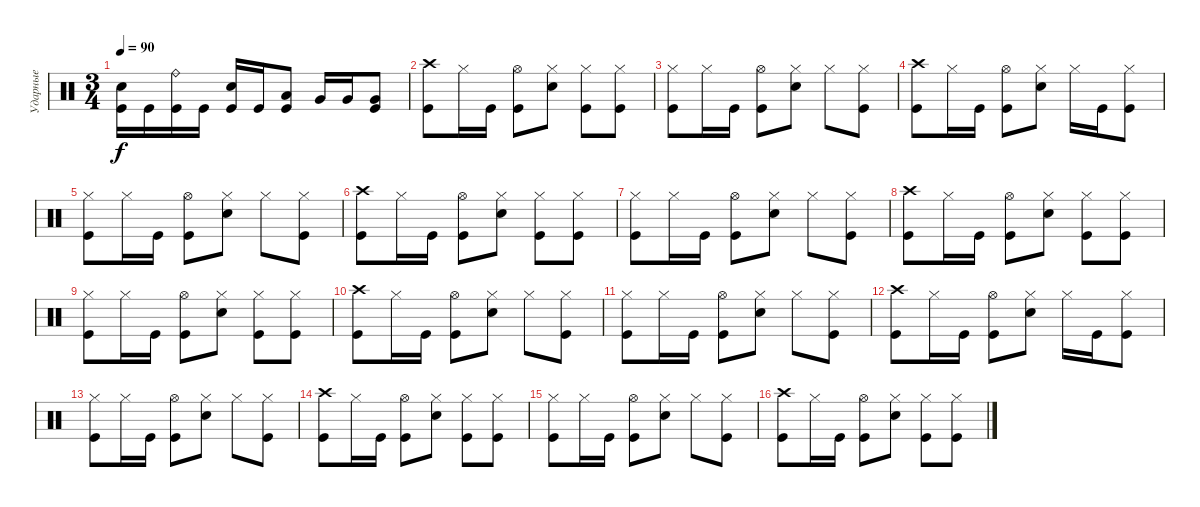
\track ("Ударные" "Ударные") {instrument percussion}
\staff {score}
\articulation defaults
\ts (3 4)
\tempo 90
\clef neutral
\ks c
("Electric Snare (hit)" "Kick (hit)").16{dy f} "Kick (hit)".16 ("Ride (bell)" "Kick (hit)").16 "Kick (hit)".16 ("Electric Snare (hit)" "Kick (hit)").16 "Kick (hit)".16 ("Low Tom (hit)" "Kick (hit)").8 "Very Low Tom (hit)".16 "Very Low Tom (hit)".16 ("Very Low Tom (hit)" "Kick (hit)").8 |
("Crash high (hit)" "Kick (hit)").8 "Hi-Hat (closed)".16 "Kick (hit)".16 ("Hi-Hat (open)" "Kick (hit)").8 ("Hi-Hat (closed)" "Electric Snare (hit)").8 ("Hi-Hat (closed)" "Kick (hit)").8 ("Hi-Hat (closed)" "Kick (hit)").8 |
("Hi-Hat (closed)" "Kick (hit)").8 "Hi-Hat (closed)".16 "Kick (hit)".16 ("Hi-Hat (open)" "Kick (hit)").8 ("Hi-Hat (closed)" "Electric Snare (hit)").8 "Hi-Hat (closed)".8 ("Hi-Hat (closed)" "Kick (hit)").8 |
("Crash high (hit)" "Kick (hit)").8 "Hi-Hat (closed)".16 "Kick (hit)".16 ("Hi-Hat (open)" "Kick (hit)").8 ("Hi-Hat (closed)" "Electric Snare (hit)").8 "Hi-Hat (closed)".16 "Kick (hit)".16 ("Hi-Hat (closed)" "Kick (hit)").8 |
("Hi-Hat (closed)" "Kick (hit)").8 "Hi-Hat (closed)".16 "Kick (hit)".16 ("Hi-Hat (open)" "Kick (hit)").8 ("Hi-Hat (closed)" "Electric Snare (hit)").8 "Hi-Hat (closed)".8 ("Hi-Hat (closed)" "Kick (hit)").8 |
("Crash high (hit)" "Kick (hit)").8 "Hi-Hat (closed)".16 "Kick (hit)".16 ("Hi-Hat (open)" "Kick (hit)").8 ("Hi-Hat (closed)" "Electric Snare (hit)").8 ("Hi-Hat (closed)" "Kick (hit)").8 ("Hi-Hat (closed)" "Kick (hit)").8 |
("Hi-Hat (closed)" "Kick (hit)").8 "Hi-Hat (closed)".16 "Kick (hit)".16 ("Hi-Hat (open)" "Kick (hit)").8 ("Hi-Hat (closed)" "Electric Snare (hit)").8 "Hi-Hat (closed)".8 ("Hi-Hat (closed)" "Kick (hit)").8 |
("Crash high (hit)" "Kick (hit)").8 "Hi-Hat (closed)".16 "Kick (hit)".16 ("Hi-Hat (open)" "Kick (hit)").8 ("Hi-Hat (closed)" "Electric Snare (hit)").8 ("Hi-Hat (closed)" "Kick (hit)").8 ("Hi-Hat (closed)" "Kick (hit)").8 |
("Hi-Hat (closed)" "Kick (hit)").8 "Hi-Hat (closed)".16 "Kick (hit)".16 ("Hi-Hat (open)" "Kick (hit)").8 ("Hi-Hat (closed)" "Electric Snare (hit)").8 ("Hi-Hat (closed)" "Kick (hit)").8 ("Hi-Hat (closed)" "Kick (hit)").8 |
("Crash high (hit)" "Kick (hit)").8 "Hi-Hat (closed)".16 "Kick (hit)".16 ("Hi-Hat (open)" "Kick (hit)").8 ("Hi-Hat (closed)" "Electric Snare (hit)").8 "Hi-Hat (closed)".8 ("Hi-Hat (closed)" "Kick (hit)").8 |
("Hi-Hat (closed)" "Kick (hit)").8 "Hi-Hat (closed)".16 "Kick (hit)".16 ("Hi-Hat (open)" "Kick (hit)").8 ("Hi-Hat (closed)" "Electric Snare (hit)").8 "Hi-Hat (closed)".8 ("Hi-Hat (closed)" "Kick (hit)").8 |
("Crash high (hit)" "Kick (hit)").8 "Hi-Hat (closed)".16 "Kick (hit)".16 ("Hi-Hat (open)" "Kick (hit)").8 ("Hi-Hat (closed)" "Electric Snare (hit)").8 "Hi-Hat (closed)".16 "Kick (hit)".16 ("Hi-Hat (closed)" "Kick (hit)").8 |
("Hi-Hat (closed)" "Kick (hit)").8 "Hi-Hat (closed)".16 "Kick (hit)".16 ("Hi-Hat (open)" "Kick (hit)").8 ("Hi-Hat (closed)" "Electric Snare (hit)").8 "Hi-Hat (closed)".8 ("Hi-Hat (closed)" "Kick (hit)").8 |
("Crash high (hit)" "Kick (hit)").8 "Hi-Hat (closed)".16 "Kick (hit)".16 ("Hi-Hat (open)" "Kick (hit)").8 ("Hi-Hat (closed)" "Electric Snare (hit)").8 ("Hi-Hat (closed)" "Kick (hit)").8 ("Hi-Hat (closed)" "Kick (hit)").8 |
("Hi-Hat (closed)" "Kick (hit)").8 "Hi-Hat (closed)".16 "Kick (hit)".16 ("Hi-Hat (open)" "Kick (hit)").8 ("Hi-Hat (closed)" "Electric Snare (hit)").8 "Hi-Hat (closed)".8 ("Hi-Hat (closed)" "Kick (hit)").8 |
("Crash high (hit)" "Kick (hit)").8 "Hi-Hat (closed)".16 "Kick (hit)".16 ("Hi-Hat (open)" "Kick (hit)").8 ("Hi-Hat (closed)" "Electric Snare (hit)").8 ("Hi-Hat (closed)" "Kick (hit)").8 ("Hi-Hat (closed)" "Kick (hit)").8
